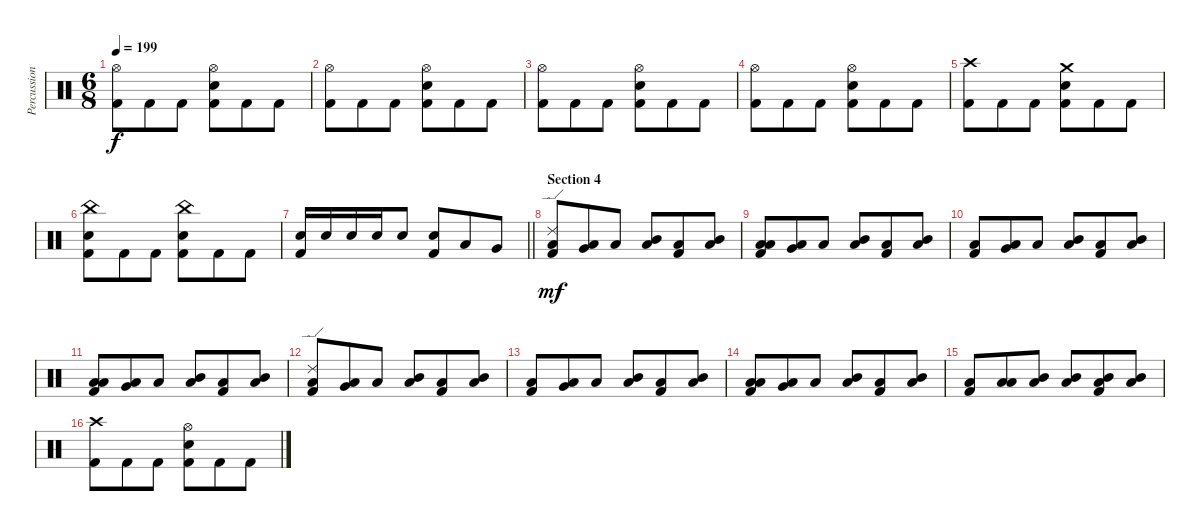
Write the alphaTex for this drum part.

\track ("Percussion" "Percussion") {instrument percussion}
\staff {score}
\articulation defaults
\ts (6 8)
\tempo 199
\clef neutral
\ks c
("Hi-Hat (open)" "Kick (hit) 2").8{dy f} "Kick (hit) 2".8 "Kick (hit) 2".8 ("Electric Snare (hit)" "Hi-Hat (open)" "Kick (hit) 2").8 "Kick (hit) 2".8 "Kick (hit) 2".8 |
("Hi-Hat (open)" "Kick (hit) 2").8 "Kick (hit) 2".8 "Kick (hit) 2".8 ("Electric Snare (hit)" "Hi-Hat (open)" "Kick (hit) 2").8 "Kick (hit) 2".8 "Kick (hit) 2".8 |
("Hi-Hat (open)" "Kick (hit) 2").8 "Kick (hit) 2".8 "Kick (hit) 2".8 ("Electric Snare (hit)" "Hi-Hat (open)" "Kick (hit) 2").8 "Kick (hit) 2".8 "Kick (hit) 2".8 |
("Hi-Hat (open)" "Kick (hit) 2").8 "Kick (hit) 2".8 "Kick (hit) 2".8 ("Electric Snare (hit)" "Hi-Hat (open)" "Kick (hit) 2").8 "Kick (hit) 2".8 "Kick (hit) 2".8 |
("Crash high (hit)" "Kick (hit) 2").8 "Kick (hit) 2".8 "Kick (hit) 2".8 ("Crash medium (hit)" "Electric Snare (hit)" "Kick (hit) 2").8 "Kick (hit) 2".8 "Kick (hit) 2".8 |
("China (hit)" "Electric Snare (hit)" "Kick (hit) 2").8 "Kick (hit) 2".8 "Kick (hit) 2".8 ("China (hit)" "Electric Snare (hit)" "Kick (hit) 2").8 "Kick (hit) 2".8 "Kick (hit) 2".8 |
\barLineRight lightlight
("Electric Snare (hit)" "Kick (hit) 2").16 "Electric Snare (hit)".16 "Electric Snare (hit)".16 "Electric Snare (hit)".16 "Electric Snare (hit)".8 ("Electric Snare (hit)" "Kick (hit) 2").8 "Low Tom (hit)".8 "Very Low Tom (hit)".8 |
\section ("" "Section 4")
("Ride (edge) 2" "Low Floor Tom (hit)" "Kick (hit) 2").8{dy mf} ("Very Low Tom (hit)" "Low Floor Tom (hit)").8 "Low Floor Tom (hit)".8 ("Mid Tom (hit)" "Low Floor Tom (hit)").8 ("Low Floor Tom (hit)" "Kick (hit) 2").8 ("Mid Tom (hit)" "Low Floor Tom (hit)").8 |
("Low Tom (hit)" "Low Floor Tom (hit)" "Kick (hit) 2").8 ("Very Low Tom (hit)" "Low Floor Tom (hit)").8 "Low Floor Tom (hit)".8 ("Mid Tom (hit)" "Low Floor Tom (hit)").8 ("Low Floor Tom (hit)" "Kick (hit) 2").8 ("Mid Tom (hit)" "Low Floor Tom (hit)").8 |
("Low Tom (hit)" "Kick (hit) 2").8 ("Very Low Tom (hit)" "Low Floor Tom (hit)").8 "Low Floor Tom (hit)".8 ("Mid Tom (hit)" "Low Floor Tom (hit)").8 ("Low Floor Tom (hit)" "Kick (hit) 2").8 ("Mid Tom (hit)" "Low Floor Tom (hit)").8 |
("Low Tom (hit)" "Low Floor Tom (hit)" "Kick (hit) 2").8 ("Very Low Tom (hit)" "Low Floor Tom (hit)").8 "Low Floor Tom (hit)".8 ("Mid Tom (hit)" "Low Floor Tom (hit)").8 ("Low Floor Tom (hit)" "Kick (hit) 2").8 ("Mid Tom (hit)" "Low Floor Tom (hit)").8 |
("Ride (edge) 2" "Low Floor Tom (hit)" "Kick (hit) 2").8 ("Very Low Tom (hit)" "Low Floor Tom (hit)").8 "Low Floor Tom (hit)".8 ("Mid Tom (hit)" "Low Floor Tom (hit)").8 ("Low Floor Tom (hit)" "Kick (hit) 2").8 ("Mid Tom (hit)" "Low Floor Tom (hit)").8 |
("Low Tom (hit)" "Kick (hit) 2").8 ("Very Low Tom (hit)" "Low Floor Tom (hit)").8 "Low Floor Tom (hit)".8 ("Mid Tom (hit)" "Low Floor Tom (hit)").8 ("Low Floor Tom (hit)" "Kick (hit) 2").8 ("Mid Tom (hit)" "Low Floor Tom (hit)").8 |
("Low Tom (hit)" "Low Floor Tom (hit)" "Kick (hit) 2").8 ("Very Low Tom (hit)" "Low Floor Tom (hit)").8 "Low Floor Tom (hit)".8 ("Mid Tom (hit)" "Low Floor Tom (hit)").8 ("Low Floor Tom (hit)" "Kick (hit) 2").8 ("Mid Tom (hit)" "Low Floor Tom (hit)").8 |
("Low Tom (hit)" "Kick (hit) 2").8 ("Low Tom (hit)" "Low Floor Tom (hit)").8 ("Mid Tom (hit)" "Low Floor Tom (hit)").8 ("Mid Tom (hit)" "Low Floor Tom (hit)").8 ("Mid Tom (hit)" "Low Floor Tom (hit)" "Kick (hit) 2").8 ("Mid Tom (hit)" "Low Floor Tom (hit)").8 |
("Crash high (hit)" "Kick (hit) 2").8 "Kick (hit) 2".8 "Kick (hit) 2".8 ("Electric Snare (hit)" "Hi-Hat (open)" "Kick (hit) 2").8 "Kick (hit) 2".8 "Kick (hit) 2".8
